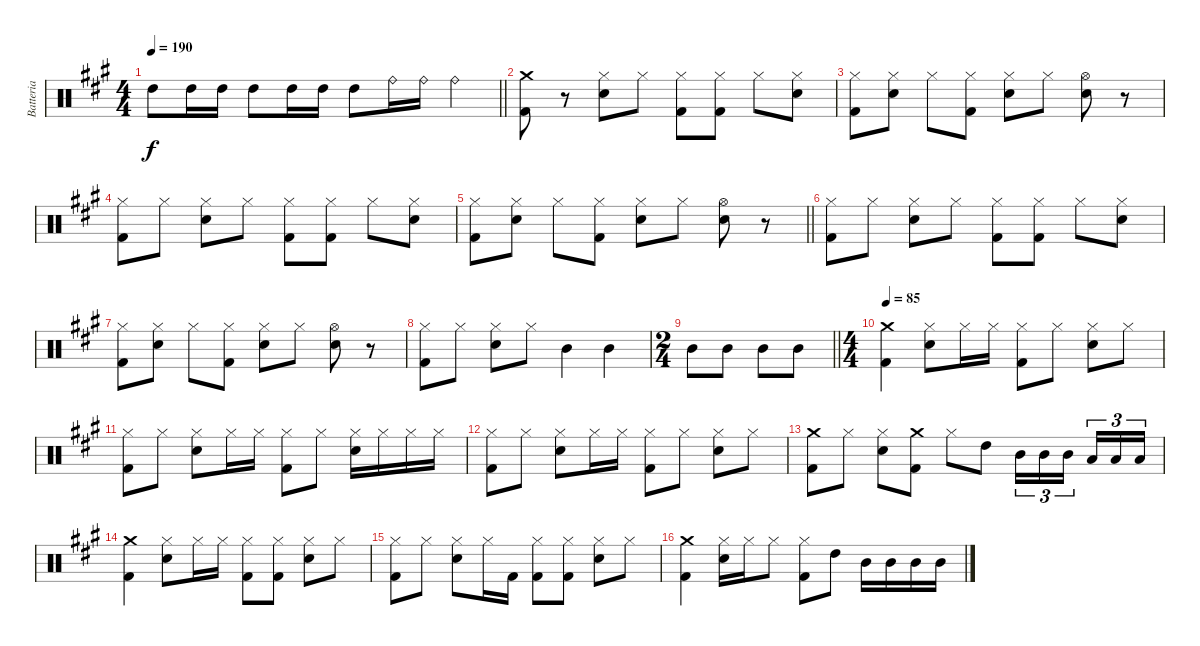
\track ("Batteria" "Batteria") {instrument percussion}
\staff {score}
\articulation defaults
\ts (4 4)
\tempo 190
\clef neutral
\barLineRight lightlight
\ks a "High Tom (hit)".8{dy f} "High Tom (hit)".16 "High Tom (hit)".16 "High Tom (hit)".8 "High Tom (hit)".16 "High Tom (hit)".16 "High Tom (hit)".8 "Ride (bell)".16 "Ride (bell)".16 "Ride (bell)".4
|
("Crash medium (hit)" "Kick (hit) 2").8 r.8 ("Hi-Hat (closed)" "Electric Snare (hit)").8 "Hi-Hat (closed)".8 ("Hi-Hat (closed)" "Kick (hit) 2").8 ("Hi-Hat (closed)" "Kick (hit) 2").8 "Hi-Hat (closed)".8 ("Hi-Hat (closed)" "Electric Snare (hit)").8 |
("Hi-Hat (closed)" "Kick (hit) 2").8 ("Hi-Hat (closed)" "Electric Snare (hit)").8 "Hi-Hat (closed)".8 ("Hi-Hat (closed)" "Kick (hit) 2").8 ("Hi-Hat (closed)" "Electric Snare (hit)").8 "Hi-Hat (closed)".8 ("Hi-Hat (open)" "Electric Snare (hit)").8 r.8 |
("Hi-Hat (closed)" "Kick (hit) 2").8 "Hi-Hat (closed)".8 ("Hi-Hat (closed)" "Electric Snare (hit)").8 "Hi-Hat (closed)".8 ("Hi-Hat (closed)" "Kick (hit) 2").8 ("Hi-Hat (closed)" "Kick (hit) 2").8 "Hi-Hat (closed)".8 ("Hi-Hat (closed)" "Electric Snare (hit)").8 |
\barLineRight lightlight
("Hi-Hat (closed)" "Kick (hit) 2").8 ("Hi-Hat (closed)" "Electric Snare (hit)").8 "Hi-Hat (closed)".8 ("Hi-Hat (closed)" "Kick (hit) 2").8 ("Hi-Hat (closed)" "Electric Snare (hit)").8 "Hi-Hat (closed)".8 ("Hi-Hat (open)" "Electric Snare (hit)").8 r.8 |
("Hi-Hat (closed)" "Kick (hit) 2").8 "Hi-Hat (closed)".8 ("Hi-Hat (closed)" "Electric Snare (hit)").8 "Hi-Hat (closed)".8 ("Hi-Hat (closed)" "Kick (hit) 2").8 ("Hi-Hat (closed)" "Kick (hit) 2").8 "Hi-Hat (closed)".8 ("Hi-Hat (closed)" "Electric Snare (hit)").8 |
("Hi-Hat (closed)" "Kick (hit) 2").8 ("Hi-Hat (closed)" "Electric Snare (hit)").8 "Hi-Hat (closed)".8 ("Hi-Hat (closed)" "Kick (hit) 2").8 ("Hi-Hat (closed)" "Electric Snare (hit)").8 "Hi-Hat (closed)".8 ("Hi-Hat (open)" "Electric Snare (hit)").8 r.8 |
("Hi-Hat (closed)" "Kick (hit) 2").8 "Hi-Hat (closed)".8 ("Hi-Hat (closed)" "Electric Snare (hit)").8 "Hi-Hat (closed)".8 "Mid Tom (hit)".4 "Mid Tom (hit)".4 |
\ts (2 4)
\barLineRight lightlight "Mid Tom (hit)".8 "Mid Tom (hit)".8 "Mid Tom (hit)".8 "Mid Tom (hit)".8
|
\ts (4 4)
\tempo 85
("Crash medium (hit)" "Kick (hit) 2").4 ("Hi-Hat (closed)" "Electric Snare (hit)").8 "Hi-Hat (closed)".16 "Hi-Hat (closed)".16 ("Hi-Hat (closed)" "Kick (hit) 2").8 "Hi-Hat (closed)".8 ("Hi-Hat (closed)" "Electric Snare (hit)").8 "Hi-Hat (closed)".8 |
("Hi-Hat (closed)" "Kick (hit) 2").8 "Hi-Hat (closed)".8 ("Hi-Hat (closed)" "Electric Snare (hit)").8 "Hi-Hat (closed)".16 "Hi-Hat (closed)".16 ("Hi-Hat (closed)" "Kick (hit) 2").8 "Hi-Hat (closed)".8 ("Hi-Hat (closed)" "Electric Snare (hit)").16 "Hi-Hat (closed)".16 "Hi-Hat (closed)".16 "Hi-Hat (closed)".16 |
("Hi-Hat (closed)" "Kick (hit) 2").8 "Hi-Hat (closed)".8 ("Hi-Hat (closed)" "Electric Snare (hit)").8 "Hi-Hat (closed)".16 "Hi-Hat (closed)".16 ("Hi-Hat (closed)" "Kick (hit) 2").8 "Hi-Hat (closed)".8 ("Hi-Hat (closed)" "Electric Snare (hit)").8 "Hi-Hat (closed)".8 |
("Crash medium (hit)" "Kick (hit) 2").8 "Hi-Hat (closed)".8 ("Hi-Hat (closed)" "Electric Snare (hit)").8 ("Crash medium (hit)" "Kick (hit) 2").8 "Hi-Hat (closed)".8 "High Tom (hit)".8 "Mid Tom (hit)".16{tu (3 2)} "Mid Tom (hit)".16{tu (3 2)} "Mid Tom (hit)".16{tu (3 2) beam splitsecondary} "Low Tom (hit)".16{tu (3 2)} "Low Tom (hit)".16{tu (3 2)} "Low Tom (hit)".16{tu (3 2)} |
("Crash medium (hit)" "Kick (hit) 2").4 ("Hi-Hat (closed)" "Electric Snare (hit)").8 "Hi-Hat (closed)".16 "Hi-Hat (closed)".16 ("Hi-Hat (closed)" "Kick (hit) 2").8 ("Hi-Hat (closed)" "Kick (hit) 2").8 ("Hi-Hat (closed)" "Electric Snare (hit)").8 "Hi-Hat (closed)".8 |
("Hi-Hat (closed)" "Kick (hit) 2").8 "Hi-Hat (closed)".8 ("Hi-Hat (closed)" "Electric Snare (hit)").8 "Hi-Hat (closed)".16 "Kick (hit) 2".16 ("Hi-Hat (closed)" "Kick (hit) 2").8 ("Hi-Hat (closed)" "Kick (hit) 2").8 ("Hi-Hat (closed)" "Electric Snare (hit)").8 "Hi-Hat (closed)".8 |
("Crash medium (hit)" "Kick (hit) 2").4 ("Hi-Hat (closed)" "Electric Snare (hit)").16 "Hi-Hat (closed)".16 "Hi-Hat (closed)".8 ("Hi-Hat (closed)" "Kick (hit) 2").8 "High Tom (hit)".8 "Mid Tom (hit)".16 "Mid Tom (hit)".16 "Mid Tom (hit)".16 "Mid Tom (hit)".16
